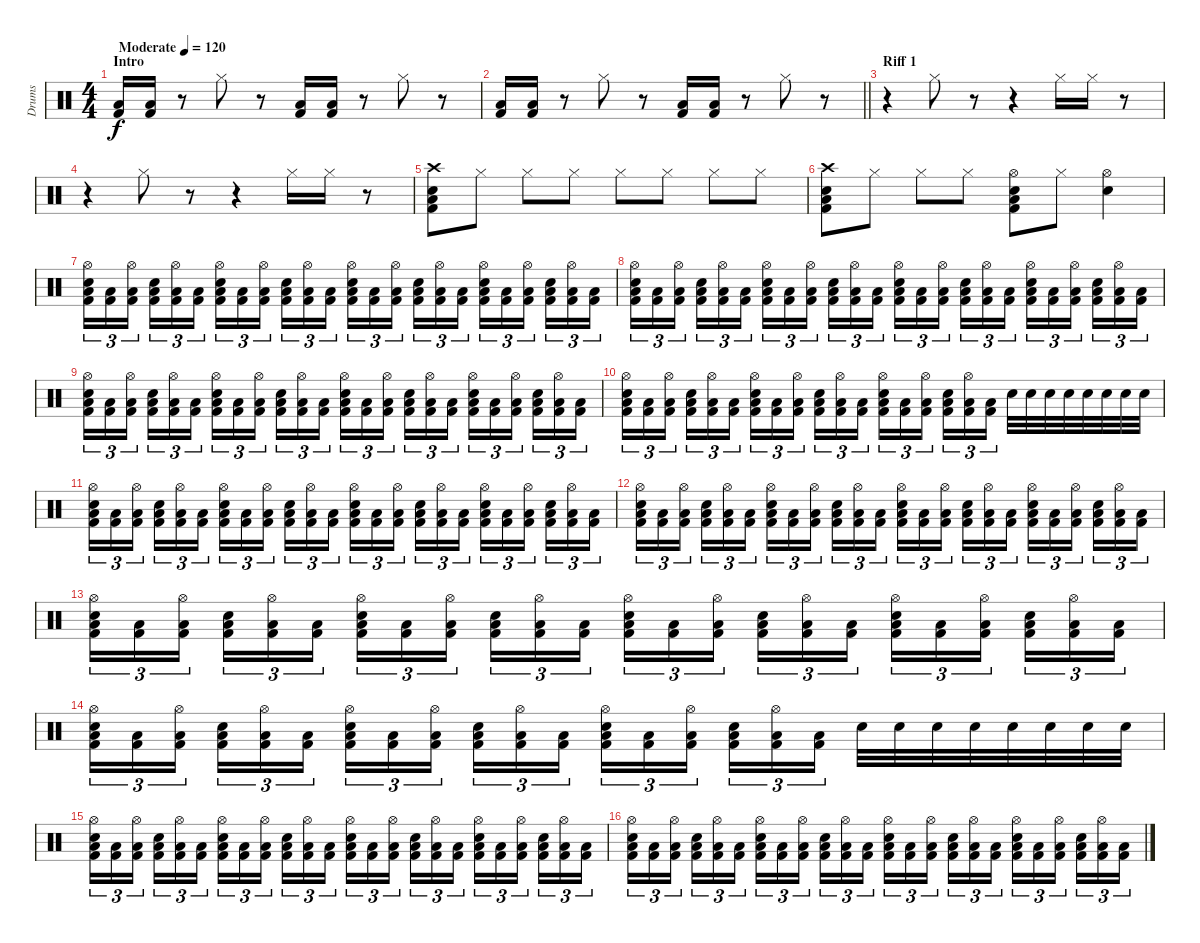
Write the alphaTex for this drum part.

\track ("Drums" "Drums") {instrument percussion}
\staff {score}
\articulation defaults
\ts (4 4)
\section ("" "Intro")
\tempo (120 "Moderate")
\clef neutral
\ks c
("Low Floor Tom (hit)" "Kick (hit) 2").16{dy f} ("Low Floor Tom (hit)" "Kick (hit) 2").16 r.8 "Hi-Hat (closed)".8 r.8 ("Low Floor Tom (hit)" "Kick (hit) 2").16 ("Low Floor Tom (hit)" "Kick (hit) 2").16 r.8 "Hi-Hat (closed)".8 r.8 |
\barLineRight lightlight
("Low Floor Tom (hit)" "Kick (hit) 2").16 ("Low Floor Tom (hit)" "Kick (hit) 2").16 r.8 "Hi-Hat (closed)".8 r.8 ("Low Floor Tom (hit)" "Kick (hit) 2").16 ("Low Floor Tom (hit)" "Kick (hit) 2").16 r.8 "Hi-Hat (closed)".8 r.8 |
\section ("" "Riff 1")
r.4 "Hi-Hat (closed)".8 r.8 r.4 "Hi-Hat (closed)".16 "Hi-Hat (closed)".16 r.8 |
r.4 "Hi-Hat (closed)".8 r.8 r.4 "Hi-Hat (closed)".16 "Hi-Hat (closed)".16 r.8 |
("Crash high (hit)" "Low Floor Tom (hit)" "Snare (hit) 2" "Kick (hit) 2").8 "Hi-Hat (closed)".8 "Hi-Hat (closed)".8 "Hi-Hat (closed)".8 "Hi-Hat (closed)".8 "Hi-Hat (closed)".8 "Hi-Hat (closed)".8 "Hi-Hat (closed)".8 |
("Crash high (hit)" "Low Floor Tom (hit)" "Snare (hit) 2" "Kick (hit) 2").8 "Hi-Hat (closed)".8 "Hi-Hat (closed)".8 "Hi-Hat (closed)".8 ("Hi-Hat (open)" "Low Floor Tom (hit)" "Snare (hit) 2" "Kick (hit) 2").8 "Hi-Hat (closed)".8 ("Hi-Hat (open)" "Snare (hit) 2").4 |
("Hi-Hat (open)" "Low Floor Tom (hit)" "Snare (hit) 2" "Kick (hit) 2").16{tu (3 2)} ("Low Floor Tom (hit)" "Kick (hit) 2").16{tu (3 2)} ("Hi-Hat (open)" "Low Floor Tom (hit)" "Kick (hit) 2").16{tu (3 2) beam splitsecondary} ("Low Floor Tom (hit)" "Snare (hit) 2" "Kick (hit) 2").16{tu (3 2)} ("Hi-Hat (open)" "Low Floor Tom (hit)" "Kick (hit) 2").16{tu (3 2)} ("Low Floor Tom (hit)" "Kick (hit) 2").16{tu (3 2)} ("Hi-Hat (open)" "Low Floor Tom (hit)" "Snare (hit) 2" "Kick (hit) 2").16{tu (3 2)} ("Low Floor Tom (hit)" "Kick (hit) 2").16{tu (3 2)} ("Hi-Hat (open)" "Low Floor Tom (hit)" "Kick (hit) 2").16{tu (3 2) beam splitsecondary} ("Low Floor Tom (hit)" "Snare (hit) 2" "Kick (hit) 2").16{tu (3 2)} ("Hi-Hat (open)" "Low Floor Tom (hit)" "Kick (hit) 2").16{tu (3 2)} ("Low Floor Tom (hit)" "Kick (hit) 2").16{tu (3 2)} ("Hi-Hat (open)" "Low Floor Tom (hit)" "Snare (hit) 2" "Kick (hit) 2").16{tu (3 2)} ("Low Floor Tom (hit)" "Kick (hit) 2").16{tu (3 2)} ("Hi-Hat (open)" "Low Floor Tom (hit)" "Kick (hit) 2").16{tu (3 2) beam splitsecondary} ("Low Floor Tom (hit)" "Snare (hit) 2" "Kick (hit) 2").16{tu (3 2)} ("Hi-Hat (open)" "Low Floor Tom (hit)" "Kick (hit) 2").16{tu (3 2)} ("Low Floor Tom (hit)" "Kick (hit) 2").16{tu (3 2)} ("Hi-Hat (open)" "Low Floor Tom (hit)" "Snare (hit) 2" "Kick (hit) 2").16{tu (3 2)} ("Low Floor Tom (hit)" "Kick (hit) 2").16{tu (3 2)} ("Hi-Hat (open)" "Low Floor Tom (hit)" "Kick (hit) 2").16{tu (3 2) beam splitsecondary} ("Low Floor Tom (hit)" "Snare (hit) 2" "Kick (hit) 2").16{tu (3 2)} ("Hi-Hat (open)" "Low Floor Tom (hit)" "Kick (hit) 2").16{tu (3 2)} ("Low Floor Tom (hit)" "Kick (hit) 2").16{tu (3 2)} |
("Hi-Hat (open)" "Low Floor Tom (hit)" "Snare (hit) 2" "Kick (hit) 2").16{tu (3 2)} ("Low Floor Tom (hit)" "Kick (hit) 2").16{tu (3 2)} ("Hi-Hat (open)" "Low Floor Tom (hit)" "Kick (hit) 2").16{tu (3 2) beam splitsecondary} ("Low Floor Tom (hit)" "Snare (hit) 2" "Kick (hit) 2").16{tu (3 2)} ("Hi-Hat (open)" "Low Floor Tom (hit)" "Kick (hit) 2").16{tu (3 2)} ("Low Floor Tom (hit)" "Kick (hit) 2").16{tu (3 2)} ("Hi-Hat (open)" "Low Floor Tom (hit)" "Snare (hit) 2" "Kick (hit) 2").16{tu (3 2)} ("Low Floor Tom (hit)" "Kick (hit) 2").16{tu (3 2)} ("Hi-Hat (open)" "Low Floor Tom (hit)" "Kick (hit) 2").16{tu (3 2) beam splitsecondary} ("Low Floor Tom (hit)" "Snare (hit) 2" "Kick (hit) 2").16{tu (3 2)} ("Hi-Hat (open)" "Low Floor Tom (hit)" "Kick (hit) 2").16{tu (3 2)} ("Low Floor Tom (hit)" "Kick (hit) 2").16{tu (3 2)} ("Hi-Hat (open)" "Low Floor Tom (hit)" "Snare (hit) 2" "Kick (hit) 2").16{tu (3 2)} ("Low Floor Tom (hit)" "Kick (hit) 2").16{tu (3 2)} ("Hi-Hat (open)" "Low Floor Tom (hit)" "Kick (hit) 2").16{tu (3 2) beam splitsecondary} ("Low Floor Tom (hit)" "Snare (hit) 2" "Kick (hit) 2").16{tu (3 2)} ("Hi-Hat (open)" "Low Floor Tom (hit)" "Kick (hit) 2").16{tu (3 2)} ("Low Floor Tom (hit)" "Kick (hit) 2").16{tu (3 2)} ("Hi-Hat (open)" "Low Floor Tom (hit)" "Snare (hit) 2" "Kick (hit) 2").16{tu (3 2)} ("Low Floor Tom (hit)" "Kick (hit) 2").16{tu (3 2)} ("Hi-Hat (open)" "Low Floor Tom (hit)" "Kick (hit) 2").16{tu (3 2) beam splitsecondary} ("Low Floor Tom (hit)" "Snare (hit) 2" "Kick (hit) 2").16{tu (3 2)} ("Hi-Hat (open)" "Low Floor Tom (hit)" "Kick (hit) 2").16{tu (3 2)} ("Low Floor Tom (hit)" "Kick (hit) 2").16{tu (3 2)} |
("Hi-Hat (open)" "Low Floor Tom (hit)" "Snare (hit) 2" "Kick (hit) 2").16{tu (3 2)} ("Low Floor Tom (hit)" "Kick (hit) 2").16{tu (3 2)} ("Hi-Hat (open)" "Low Floor Tom (hit)" "Kick (hit) 2").16{tu (3 2) beam splitsecondary} ("Low Floor Tom (hit)" "Snare (hit) 2" "Kick (hit) 2").16{tu (3 2)} ("Hi-Hat (open)" "Low Floor Tom (hit)" "Kick (hit) 2").16{tu (3 2)} ("Low Floor Tom (hit)" "Kick (hit) 2").16{tu (3 2)} ("Hi-Hat (open)" "Low Floor Tom (hit)" "Snare (hit) 2" "Kick (hit) 2").16{tu (3 2)} ("Low Floor Tom (hit)" "Kick (hit) 2").16{tu (3 2)} ("Hi-Hat (open)" "Low Floor Tom (hit)" "Kick (hit) 2").16{tu (3 2) beam splitsecondary} ("Low Floor Tom (hit)" "Snare (hit) 2" "Kick (hit) 2").16{tu (3 2)} ("Hi-Hat (open)" "Low Floor Tom (hit)" "Kick (hit) 2").16{tu (3 2)} ("Low Floor Tom (hit)" "Kick (hit) 2").16{tu (3 2)} ("Hi-Hat (open)" "Low Floor Tom (hit)" "Snare (hit) 2" "Kick (hit) 2").16{tu (3 2)} ("Low Floor Tom (hit)" "Kick (hit) 2").16{tu (3 2)} ("Hi-Hat (open)" "Low Floor Tom (hit)" "Kick (hit) 2").16{tu (3 2) beam splitsecondary} ("Low Floor Tom (hit)" "Snare (hit) 2" "Kick (hit) 2").16{tu (3 2)} ("Hi-Hat (open)" "Low Floor Tom (hit)" "Kick (hit) 2").16{tu (3 2)} ("Low Floor Tom (hit)" "Kick (hit) 2").16{tu (3 2)} ("Hi-Hat (open)" "Low Floor Tom (hit)" "Snare (hit) 2" "Kick (hit) 2").16{tu (3 2)} ("Low Floor Tom (hit)" "Kick (hit) 2").16{tu (3 2)} ("Hi-Hat (open)" "Low Floor Tom (hit)" "Kick (hit) 2").16{tu (3 2) beam splitsecondary} ("Low Floor Tom (hit)" "Snare (hit) 2" "Kick (hit) 2").16{tu (3 2)} ("Hi-Hat (open)" "Low Floor Tom (hit)" "Kick (hit) 2").16{tu (3 2)} ("Low Floor Tom (hit)" "Kick (hit) 2").16{tu (3 2)} |
("Hi-Hat (open)" "Low Floor Tom (hit)" "Snare (hit) 2" "Kick (hit) 2").16{tu (3 2)} ("Low Floor Tom (hit)" "Kick (hit) 2").16{tu (3 2)} ("Hi-Hat (open)" "Low Floor Tom (hit)" "Kick (hit) 2").16{tu (3 2) beam splitsecondary} ("Low Floor Tom (hit)" "Snare (hit) 2" "Kick (hit) 2").16{tu (3 2)} ("Hi-Hat (open)" "Low Floor Tom (hit)" "Kick (hit) 2").16{tu (3 2)} ("Low Floor Tom (hit)" "Kick (hit) 2").16{tu (3 2)} ("Hi-Hat (open)" "Low Floor Tom (hit)" "Snare (hit) 2" "Kick (hit) 2").16{tu (3 2)} ("Low Floor Tom (hit)" "Kick (hit) 2").16{tu (3 2)} ("Hi-Hat (open)" "Low Floor Tom (hit)" "Kick (hit) 2").16{tu (3 2) beam splitsecondary} ("Low Floor Tom (hit)" "Snare (hit) 2" "Kick (hit) 2").16{tu (3 2)} ("Hi-Hat (open)" "Low Floor Tom (hit)" "Kick (hit) 2").16{tu (3 2)} ("Low Floor Tom (hit)" "Kick (hit) 2").16{tu (3 2)} ("Hi-Hat (open)" "Low Floor Tom (hit)" "Snare (hit) 2" "Kick (hit) 2").16{tu (3 2)} ("Low Floor Tom (hit)" "Kick (hit) 2").16{tu (3 2)} ("Hi-Hat (open)" "Low Floor Tom (hit)" "Kick (hit) 2").16{tu (3 2) beam splitsecondary} ("Low Floor Tom (hit)" "Snare (hit) 2" "Kick (hit) 2").16{tu (3 2)} ("Hi-Hat (open)" "Low Floor Tom (hit)" "Kick (hit) 2").16{tu (3 2)} ("Low Floor Tom (hit)" "Kick (hit) 2").16{tu (3 2)} "Snare (hit) 2".32 "Snare (hit) 2".32 "Snare (hit) 2".32 "Snare (hit) 2".32 "Snare (hit) 2".32 "Snare (hit) 2".32 "Snare (hit) 2".32 "Snare (hit) 2".32 |
("Hi-Hat (open)" "Low Floor Tom (hit)" "Snare (hit) 2" "Kick (hit) 2").16{tu (3 2)} ("Low Floor Tom (hit)" "Kick (hit) 2").16{tu (3 2)} ("Hi-Hat (open)" "Low Floor Tom (hit)" "Kick (hit) 2").16{tu (3 2) beam splitsecondary} ("Low Floor Tom (hit)" "Snare (hit) 2" "Kick (hit) 2").16{tu (3 2)} ("Hi-Hat (open)" "Low Floor Tom (hit)" "Kick (hit) 2").16{tu (3 2)} ("Low Floor Tom (hit)" "Kick (hit) 2").16{tu (3 2)} ("Hi-Hat (open)" "Low Floor Tom (hit)" "Snare (hit) 2" "Kick (hit) 2").16{tu (3 2)} ("Low Floor Tom (hit)" "Kick (hit) 2").16{tu (3 2)} ("Hi-Hat (open)" "Low Floor Tom (hit)" "Kick (hit) 2").16{tu (3 2) beam splitsecondary} ("Low Floor Tom (hit)" "Snare (hit) 2" "Kick (hit) 2").16{tu (3 2)} ("Hi-Hat (open)" "Low Floor Tom (hit)" "Kick (hit) 2").16{tu (3 2)} ("Low Floor Tom (hit)" "Kick (hit) 2").16{tu (3 2)} ("Hi-Hat (open)" "Low Floor Tom (hit)" "Snare (hit) 2" "Kick (hit) 2").16{tu (3 2)} ("Low Floor Tom (hit)" "Kick (hit) 2").16{tu (3 2)} ("Hi-Hat (open)" "Low Floor Tom (hit)" "Kick (hit) 2").16{tu (3 2) beam splitsecondary} ("Low Floor Tom (hit)" "Snare (hit) 2" "Kick (hit) 2").16{tu (3 2)} ("Hi-Hat (open)" "Low Floor Tom (hit)" "Kick (hit) 2").16{tu (3 2)} ("Low Floor Tom (hit)" "Kick (hit) 2").16{tu (3 2)} ("Hi-Hat (open)" "Low Floor Tom (hit)" "Snare (hit) 2" "Kick (hit) 2").16{tu (3 2)} ("Low Floor Tom (hit)" "Kick (hit) 2").16{tu (3 2)} ("Hi-Hat (open)" "Low Floor Tom (hit)" "Kick (hit) 2").16{tu (3 2) beam splitsecondary} ("Low Floor Tom (hit)" "Snare (hit) 2" "Kick (hit) 2").16{tu (3 2)} ("Hi-Hat (open)" "Low Floor Tom (hit)" "Kick (hit) 2").16{tu (3 2)} ("Low Floor Tom (hit)" "Kick (hit) 2").16{tu (3 2)} |
("Hi-Hat (open)" "Low Floor Tom (hit)" "Snare (hit) 2" "Kick (hit) 2").16{tu (3 2)} ("Low Floor Tom (hit)" "Kick (hit) 2").16{tu (3 2)} ("Hi-Hat (open)" "Low Floor Tom (hit)" "Kick (hit) 2").16{tu (3 2) beam splitsecondary} ("Low Floor Tom (hit)" "Snare (hit) 2" "Kick (hit) 2").16{tu (3 2)} ("Hi-Hat (open)" "Low Floor Tom (hit)" "Kick (hit) 2").16{tu (3 2)} ("Low Floor Tom (hit)" "Kick (hit) 2").16{tu (3 2)} ("Hi-Hat (open)" "Low Floor Tom (hit)" "Snare (hit) 2" "Kick (hit) 2").16{tu (3 2)} ("Low Floor Tom (hit)" "Kick (hit) 2").16{tu (3 2)} ("Hi-Hat (open)" "Low Floor Tom (hit)" "Kick (hit) 2").16{tu (3 2) beam splitsecondary} ("Low Floor Tom (hit)" "Snare (hit) 2" "Kick (hit) 2").16{tu (3 2)} ("Hi-Hat (open)" "Low Floor Tom (hit)" "Kick (hit) 2").16{tu (3 2)} ("Low Floor Tom (hit)" "Kick (hit) 2").16{tu (3 2)} ("Hi-Hat (open)" "Low Floor Tom (hit)" "Snare (hit) 2" "Kick (hit) 2").16{tu (3 2)} ("Low Floor Tom (hit)" "Kick (hit) 2").16{tu (3 2)} ("Hi-Hat (open)" "Low Floor Tom (hit)" "Kick (hit) 2").16{tu (3 2) beam splitsecondary} ("Low Floor Tom (hit)" "Snare (hit) 2" "Kick (hit) 2").16{tu (3 2)} ("Hi-Hat (open)" "Low Floor Tom (hit)" "Kick (hit) 2").16{tu (3 2)} ("Low Floor Tom (hit)" "Kick (hit) 2").16{tu (3 2)} ("Hi-Hat (open)" "Low Floor Tom (hit)" "Snare (hit) 2" "Kick (hit) 2").16{tu (3 2)} ("Low Floor Tom (hit)" "Kick (hit) 2").16{tu (3 2)} ("Hi-Hat (open)" "Low Floor Tom (hit)" "Kick (hit) 2").16{tu (3 2) beam splitsecondary} ("Low Floor Tom (hit)" "Snare (hit) 2" "Kick (hit) 2").16{tu (3 2)} ("Hi-Hat (open)" "Low Floor Tom (hit)" "Kick (hit) 2").16{tu (3 2)} ("Low Floor Tom (hit)" "Kick (hit) 2").16{tu (3 2)} |
("Hi-Hat (open)" "Low Floor Tom (hit)" "Snare (hit) 2" "Kick (hit) 2").16{tu (3 2)} ("Low Floor Tom (hit)" "Kick (hit) 2").16{tu (3 2)} ("Hi-Hat (open)" "Low Floor Tom (hit)" "Kick (hit) 2").16{tu (3 2) beam splitsecondary} ("Low Floor Tom (hit)" "Snare (hit) 2" "Kick (hit) 2").16{tu (3 2)} ("Hi-Hat (open)" "Low Floor Tom (hit)" "Kick (hit) 2").16{tu (3 2)} ("Low Floor Tom (hit)" "Kick (hit) 2").16{tu (3 2)} ("Hi-Hat (open)" "Low Floor Tom (hit)" "Snare (hit) 2" "Kick (hit) 2").16{tu (3 2)} ("Low Floor Tom (hit)" "Kick (hit) 2").16{tu (3 2)} ("Hi-Hat (open)" "Low Floor Tom (hit)" "Kick (hit) 2").16{tu (3 2) beam splitsecondary} ("Low Floor Tom (hit)" "Snare (hit) 2" "Kick (hit) 2").16{tu (3 2)} ("Hi-Hat (open)" "Low Floor Tom (hit)" "Kick (hit) 2").16{tu (3 2)} ("Low Floor Tom (hit)" "Kick (hit) 2").16{tu (3 2)} ("Hi-Hat (open)" "Low Floor Tom (hit)" "Snare (hit) 2" "Kick (hit) 2").16{tu (3 2)} ("Low Floor Tom (hit)" "Kick (hit) 2").16{tu (3 2)} ("Hi-Hat (open)" "Low Floor Tom (hit)" "Kick (hit) 2").16{tu (3 2) beam splitsecondary} ("Low Floor Tom (hit)" "Snare (hit) 2" "Kick (hit) 2").16{tu (3 2)} ("Hi-Hat (open)" "Low Floor Tom (hit)" "Kick (hit) 2").16{tu (3 2)} ("Low Floor Tom (hit)" "Kick (hit) 2").16{tu (3 2)} ("Hi-Hat (open)" "Low Floor Tom (hit)" "Snare (hit) 2" "Kick (hit) 2").16{tu (3 2)} ("Low Floor Tom (hit)" "Kick (hit) 2").16{tu (3 2)} ("Hi-Hat (open)" "Low Floor Tom (hit)" "Kick (hit) 2").16{tu (3 2) beam splitsecondary} ("Low Floor Tom (hit)" "Snare (hit) 2" "Kick (hit) 2").16{tu (3 2)} ("Hi-Hat (open)" "Low Floor Tom (hit)" "Kick (hit) 2").16{tu (3 2)} ("Low Floor Tom (hit)" "Kick (hit) 2").16{tu (3 2)} |
("Hi-Hat (open)" "Low Floor Tom (hit)" "Snare (hit) 2" "Kick (hit) 2").16{tu (3 2)} ("Low Floor Tom (hit)" "Kick (hit) 2").16{tu (3 2)} ("Hi-Hat (open)" "Low Floor Tom (hit)" "Kick (hit) 2").16{tu (3 2) beam splitsecondary} ("Low Floor Tom (hit)" "Snare (hit) 2" "Kick (hit) 2").16{tu (3 2)} ("Hi-Hat (open)" "Low Floor Tom (hit)" "Kick (hit) 2").16{tu (3 2)} ("Low Floor Tom (hit)" "Kick (hit) 2").16{tu (3 2)} ("Hi-Hat (open)" "Low Floor Tom (hit)" "Snare (hit) 2" "Kick (hit) 2").16{tu (3 2)} ("Low Floor Tom (hit)" "Kick (hit) 2").16{tu (3 2)} ("Hi-Hat (open)" "Low Floor Tom (hit)" "Kick (hit) 2").16{tu (3 2) beam splitsecondary} ("Low Floor Tom (hit)" "Snare (hit) 2" "Kick (hit) 2").16{tu (3 2)} ("Hi-Hat (open)" "Low Floor Tom (hit)" "Kick (hit) 2").16{tu (3 2)} ("Low Floor Tom (hit)" "Kick (hit) 2").16{tu (3 2)} ("Hi-Hat (open)" "Low Floor Tom (hit)" "Snare (hit) 2" "Kick (hit) 2").16{tu (3 2)} ("Low Floor Tom (hit)" "Kick (hit) 2").16{tu (3 2)} ("Hi-Hat (open)" "Low Floor Tom (hit)" "Kick (hit) 2").16{tu (3 2) beam splitsecondary} ("Low Floor Tom (hit)" "Snare (hit) 2" "Kick (hit) 2").16{tu (3 2)} ("Hi-Hat (open)" "Low Floor Tom (hit)" "Kick (hit) 2").16{tu (3 2)} ("Low Floor Tom (hit)" "Kick (hit) 2").16{tu (3 2)} "Snare (hit) 2".32 "Snare (hit) 2".32 "Snare (hit) 2".32 "Snare (hit) 2".32 "Snare (hit) 2".32 "Snare (hit) 2".32 "Snare (hit) 2".32 "Snare (hit) 2".32 |
("Hi-Hat (open)" "Low Floor Tom (hit)" "Snare (hit) 2" "Kick (hit) 2").16{tu (3 2)} ("Low Floor Tom (hit)" "Kick (hit) 2").16{tu (3 2)} ("Hi-Hat (open)" "Low Floor Tom (hit)" "Kick (hit) 2").16{tu (3 2) beam splitsecondary} ("Low Floor Tom (hit)" "Snare (hit) 2" "Kick (hit) 2").16{tu (3 2)} ("Hi-Hat (open)" "Low Floor Tom (hit)" "Kick (hit) 2").16{tu (3 2)} ("Low Floor Tom (hit)" "Kick (hit) 2").16{tu (3 2)} ("Hi-Hat (open)" "Low Floor Tom (hit)" "Snare (hit) 2" "Kick (hit) 2").16{tu (3 2)} ("Low Floor Tom (hit)" "Kick (hit) 2").16{tu (3 2)} ("Hi-Hat (open)" "Low Floor Tom (hit)" "Kick (hit) 2").16{tu (3 2) beam splitsecondary} ("Low Floor Tom (hit)" "Snare (hit) 2" "Kick (hit) 2").16{tu (3 2)} ("Hi-Hat (open)" "Low Floor Tom (hit)" "Kick (hit) 2").16{tu (3 2)} ("Low Floor Tom (hit)" "Kick (hit) 2").16{tu (3 2)} ("Hi-Hat (open)" "Low Floor Tom (hit)" "Snare (hit) 2" "Kick (hit) 2").16{tu (3 2)} ("Low Floor Tom (hit)" "Kick (hit) 2").16{tu (3 2)} ("Hi-Hat (open)" "Low Floor Tom (hit)" "Kick (hit) 2").16{tu (3 2) beam splitsecondary} ("Low Floor Tom (hit)" "Snare (hit) 2" "Kick (hit) 2").16{tu (3 2)} ("Hi-Hat (open)" "Low Floor Tom (hit)" "Kick (hit) 2").16{tu (3 2)} ("Low Floor Tom (hit)" "Kick (hit) 2").16{tu (3 2)} ("Hi-Hat (open)" "Low Floor Tom (hit)" "Snare (hit) 2" "Kick (hit) 2").16{tu (3 2)} ("Low Floor Tom (hit)" "Kick (hit) 2").16{tu (3 2)} ("Hi-Hat (open)" "Low Floor Tom (hit)" "Kick (hit) 2").16{tu (3 2) beam splitsecondary} ("Low Floor Tom (hit)" "Snare (hit) 2" "Kick (hit) 2").16{tu (3 2)} ("Hi-Hat (open)" "Low Floor Tom (hit)" "Kick (hit) 2").16{tu (3 2)} ("Low Floor Tom (hit)" "Kick (hit) 2").16{tu (3 2)} |
("Hi-Hat (open)" "Low Floor Tom (hit)" "Snare (hit) 2" "Kick (hit) 2").16{tu (3 2)} ("Low Floor Tom (hit)" "Kick (hit) 2").16{tu (3 2)} ("Hi-Hat (open)" "Low Floor Tom (hit)" "Kick (hit) 2").16{tu (3 2) beam splitsecondary} ("Low Floor Tom (hit)" "Snare (hit) 2" "Kick (hit) 2").16{tu (3 2)} ("Hi-Hat (open)" "Low Floor Tom (hit)" "Kick (hit) 2").16{tu (3 2)} ("Low Floor Tom (hit)" "Kick (hit) 2").16{tu (3 2)} ("Hi-Hat (open)" "Low Floor Tom (hit)" "Snare (hit) 2" "Kick (hit) 2").16{tu (3 2)} ("Low Floor Tom (hit)" "Kick (hit) 2").16{tu (3 2)} ("Hi-Hat (open)" "Low Floor Tom (hit)" "Kick (hit) 2").16{tu (3 2) beam splitsecondary} ("Low Floor Tom (hit)" "Snare (hit) 2" "Kick (hit) 2").16{tu (3 2)} ("Hi-Hat (open)" "Low Floor Tom (hit)" "Kick (hit) 2").16{tu (3 2)} ("Low Floor Tom (hit)" "Kick (hit) 2").16{tu (3 2)} ("Hi-Hat (open)" "Low Floor Tom (hit)" "Snare (hit) 2" "Kick (hit) 2").16{tu (3 2)} ("Low Floor Tom (hit)" "Kick (hit) 2").16{tu (3 2)} ("Hi-Hat (open)" "Low Floor Tom (hit)" "Kick (hit) 2").16{tu (3 2) beam splitsecondary} ("Low Floor Tom (hit)" "Snare (hit) 2" "Kick (hit) 2").16{tu (3 2)} ("Hi-Hat (open)" "Low Floor Tom (hit)" "Kick (hit) 2").16{tu (3 2)} ("Low Floor Tom (hit)" "Kick (hit) 2").16{tu (3 2)} ("Hi-Hat (open)" "Low Floor Tom (hit)" "Snare (hit) 2" "Kick (hit) 2").16{tu (3 2)} ("Low Floor Tom (hit)" "Kick (hit) 2").16{tu (3 2)} ("Hi-Hat (open)" "Low Floor Tom (hit)" "Kick (hit) 2").16{tu (3 2) beam splitsecondary} ("Low Floor Tom (hit)" "Snare (hit) 2" "Kick (hit) 2").16{tu (3 2)} ("Hi-Hat (open)" "Low Floor Tom (hit)" "Kick (hit) 2").16{tu (3 2)} ("Low Floor Tom (hit)" "Kick (hit) 2").16{tu (3 2)}
